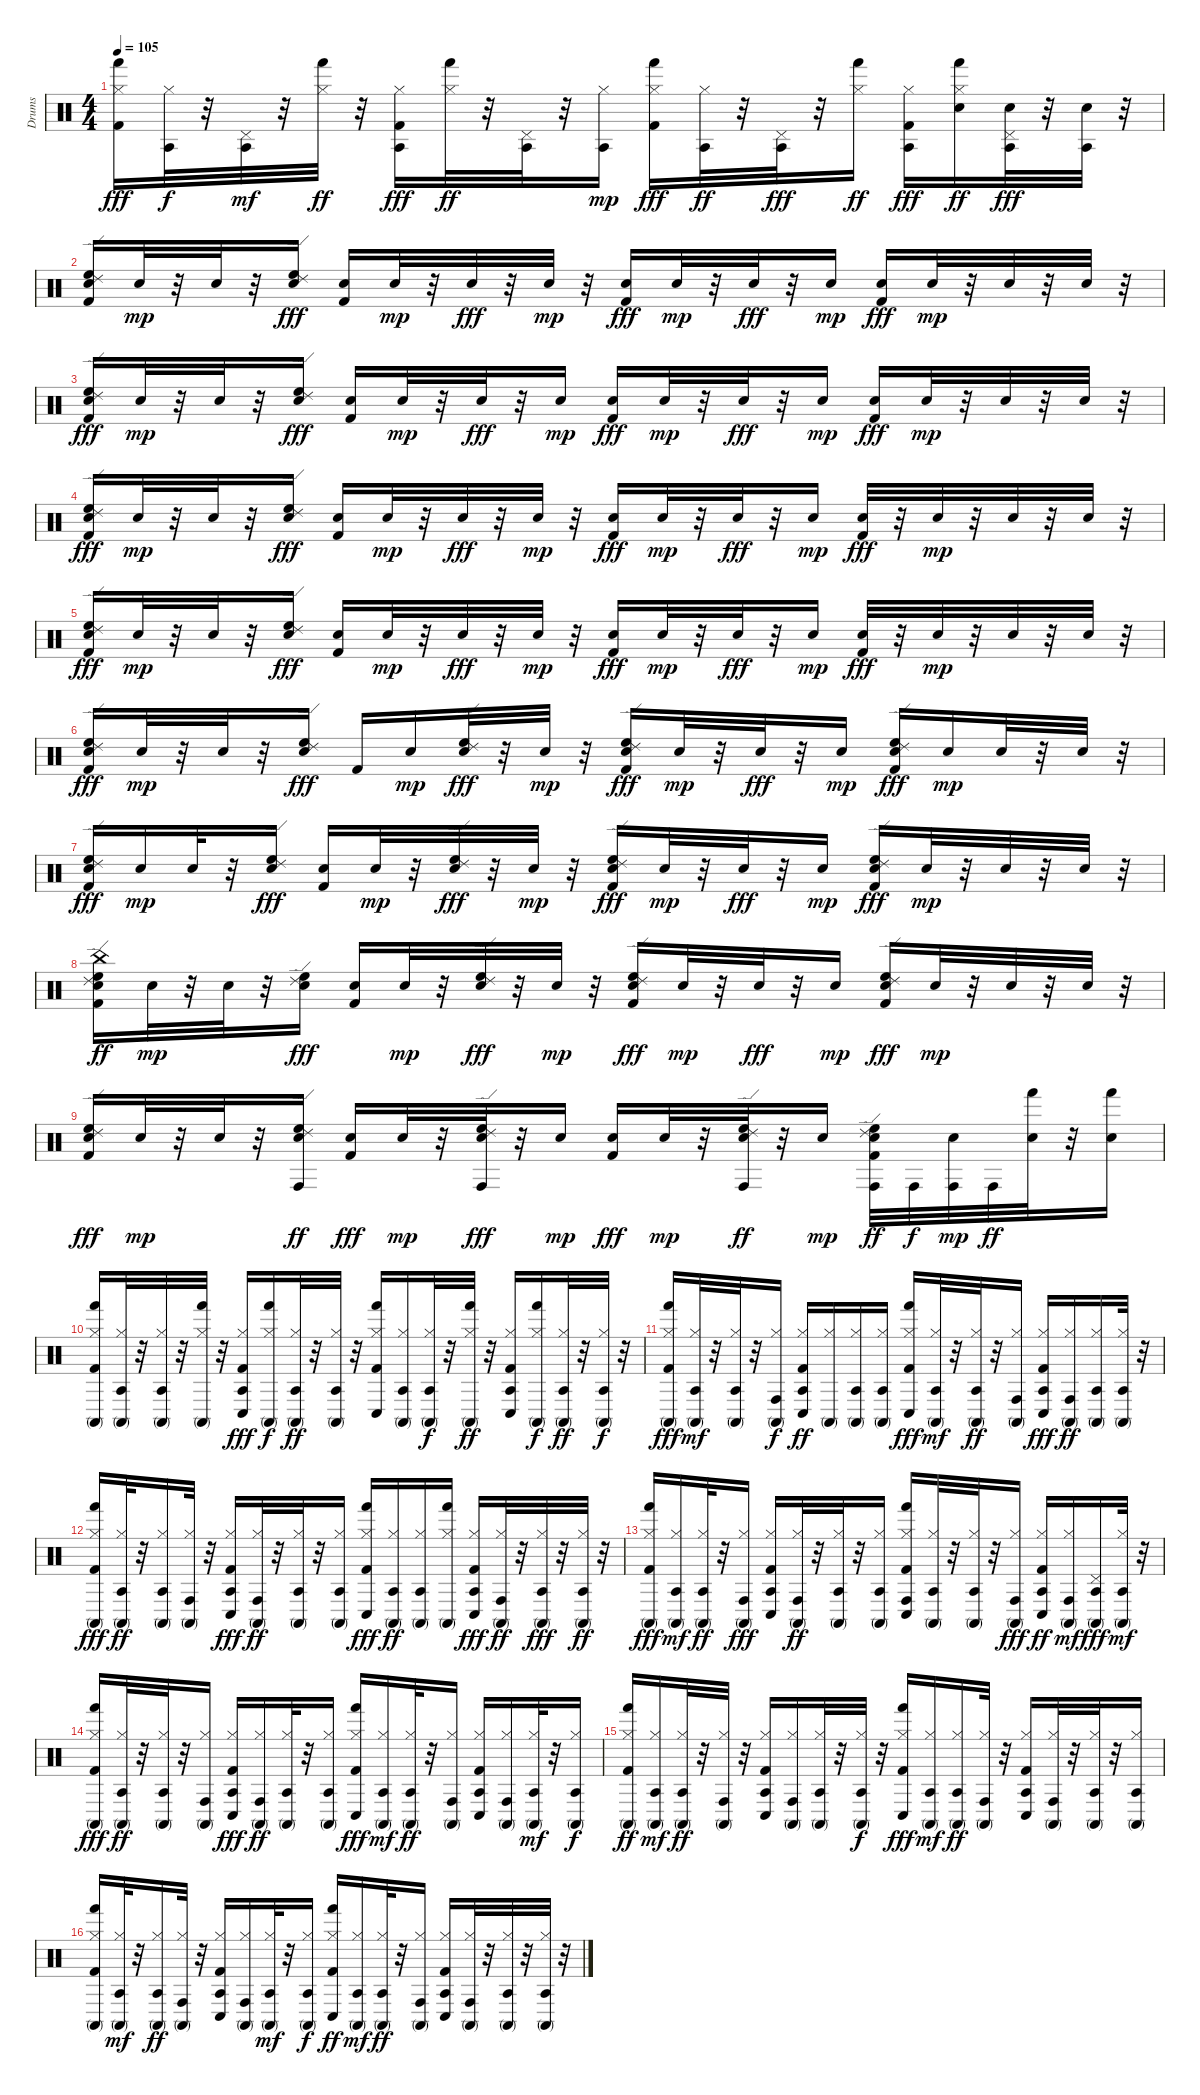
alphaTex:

\track ("Drums" "Drums") {instrument percussion}
\staff {score}
\articulation defaults
\ts (4 4)
\tempo 105
\clef neutral
\ks c
("Hand (hit)" "Hi-Hat (closed)" "Kick (hit) 2").16{dy fff} ("Agogo tow (hit)" "Hi-Hat (closed)").32{dy f} r.32 ("Pedal Hi-Hat (hit)" "Agogo tow (hit)").32{dy mf} r.32 ("Hi-Hat (closed)" "Hand (hit)").32{dy ff} r.32 ("Agogo tow (hit)" "Hi-Hat (closed)" "Kick (hit) 2").16{dy fff} ("Hi-Hat (closed)" "Hand (hit)").32{dy ff} r.32 ("Agogo tow (hit)" "Pedal Hi-Hat (hit)").32 r.32 ("Agogo tow (hit)" "Hi-Hat (closed)").16{dy mp} ("Hand (hit)" "Hi-Hat (closed)" "Kick (hit) 2").16{dy fff} ("Agogo tow (hit)" "Hi-Hat (closed)").32{dy ff} r.32 ("Pedal Hi-Hat (hit)" "Agogo tow (hit)").32{dy fff} r.32 ("Hand (hit)" "Hi-Hat (closed)").16{dy ff} ("Agogo tow (hit)" "Hi-Hat (closed)" "Kick (hit) 2").16{dy fff} ("Hand (hit)" "Snare (hit) 2" "Hi-Hat (closed)").16{dy ff} ("Agogo tow (hit)" "Snare (hit) 2" "Pedal Hi-Hat (hit)").32{dy fff} r.32 ("Agogo tow (hit)" "Snare (hit) 2").32 r.32 |
("High Floor Tom (hit)" "Ride (edge) 2" "Snare (hit) 2" "Kick (hit) 2").16 "Snare (hit) 2".32{dy mp} r.32 "Snare (hit) 2".32 r.32 ("Ride (edge) 2" "High Floor Tom (hit)" "Snare (hit) 2").16{dy fff} ("Snare (hit) 2" "Kick (hit) 2").16 "Snare (hit) 2".32{dy mp} r.32 "Snare (hit) 2".32{dy fff} r.32 "Snare (hit) 2".32{dy mp} r.32 ("Snare (hit) 2" "Kick (hit) 2").16{dy fff} "Snare (hit) 2".32{dy mp} r.32 "Snare (hit) 2".32{dy fff} r.32 "Snare (hit) 2".16{dy mp} ("Snare (hit) 2" "Kick (hit) 2").16{dy fff} "Snare (hit) 2".32{dy mp} r.32 "Snare (hit) 2".32 r.32 "Snare (hit) 2".32 r.32 |
("High Floor Tom (hit)" "Ride (edge) 2" "Snare (hit) 2" "Kick (hit) 2").16{dy fff} "Snare (hit) 2".32{dy mp} r.32 "Snare (hit) 2".32 r.32 ("Ride (edge) 2" "High Floor Tom (hit)" "Snare (hit) 2").16{dy fff} ("Snare (hit) 2" "Kick (hit) 2").16 "Snare (hit) 2".32{dy mp} r.32 "Snare (hit) 2".32{dy fff} r.32 "Snare (hit) 2".16{dy mp} ("Snare (hit) 2" "Kick (hit) 2").16{dy fff} "Snare (hit) 2".32{dy mp} r.32 "Snare (hit) 2".32{dy fff} r.32 "Snare (hit) 2".16{dy mp} ("Snare (hit) 2" "Kick (hit) 2").16{dy fff} "Snare (hit) 2".32{dy mp} r.32 "Snare (hit) 2".32 r.32 "Snare (hit) 2".32 r.32 |
("High Floor Tom (hit)" "Ride (edge) 2" "Kick (hit) 2" "Snare (hit) 2").16{dy fff} "Snare (hit) 2".32{dy mp} r.32 "Snare (hit) 2".32 r.32 ("High Floor Tom (hit)" "Ride (edge) 2" "Snare (hit) 2").16{dy fff} ("Snare (hit) 2" "Kick (hit) 2").16 "Snare (hit) 2".32{dy mp} r.32 "Snare (hit) 2".32{dy fff} r.32 "Snare (hit) 2".32{dy mp} r.32 ("Snare (hit) 2" "Kick (hit) 2").16{dy fff} "Snare (hit) 2".32{dy mp} r.32 "Snare (hit) 2".32{dy fff} r.32 "Snare (hit) 2".16{dy mp} ("Kick (hit) 2" "Snare (hit) 2").32{dy fff} r.32 "Snare (hit) 2".32{dy mp} r.32 "Snare (hit) 2".32 r.32 "Snare (hit) 2".32 r.32 |
("High Floor Tom (hit)" "Ride (edge) 2" "Kick (hit) 2" "Snare (hit) 2").16{dy fff} "Snare (hit) 2".32{dy mp} r.32 "Snare (hit) 2".32 r.32 ("High Floor Tom (hit)" "Ride (edge) 2" "Snare (hit) 2").16{dy fff} ("Snare (hit) 2" "Kick (hit) 2").16 "Snare (hit) 2".32{dy mp} r.32 "Snare (hit) 2".32{dy fff} r.32 "Snare (hit) 2".32{dy mp} r.32 ("Snare (hit) 2" "Kick (hit) 2").16{dy fff} "Snare (hit) 2".32{dy mp} r.32 "Snare (hit) 2".32{dy fff} r.32 "Snare (hit) 2".16{dy mp} ("Kick (hit) 2" "Snare (hit) 2").32{dy fff} r.32 "Snare (hit) 2".32{dy mp} r.32 "Snare (hit) 2".32 r.32 "Snare (hit) 2".32 r.32 |
("Ride (edge) 2" "High Floor Tom (hit)" "Snare (hit) 2" "Kick (hit) 2").16{dy fff} "Snare (hit) 2".32{dy mp} r.32 "Snare (hit) 2".32 r.32 ("High Floor Tom (hit)" "Ride (edge) 2" "Snare (hit) 2").16{dy fff} "Kick (hit) 2".16 "Snare (hit) 2".16{dy mp} ("Ride (edge) 2" "High Floor Tom (hit)" "Snare (hit) 2").32{dy fff} r.32 "Snare (hit) 2".32{dy mp} r.32 ("Ride (edge) 2" "High Floor Tom (hit)" "Snare (hit) 2" "Kick (hit) 2").16{dy fff} "Snare (hit) 2".32{dy mp} r.32 "Snare (hit) 2".32{dy fff} r.32 "Snare (hit) 2".16{dy mp} ("High Floor Tom (hit)" "Ride (edge) 2" "Snare (hit) 2" "Kick (hit) 2").16{dy fff} "Snare (hit) 2".16{dy mp} "Snare (hit) 2".32 r.32 "Snare (hit) 2".32 r.32 |
("Ride (edge) 2" "High Floor Tom (hit)" "Snare (hit) 2" "Kick (hit) 2").16{dy fff} "Snare (hit) 2".16{dy mp} "Snare (hit) 2".32 r.32 ("High Floor Tom (hit)" "Ride (edge) 2" "Snare (hit) 2").16{dy fff} ("Snare (hit) 2" "Kick (hit) 2").16 "Snare (hit) 2".32{dy mp} r.32 ("High Floor Tom (hit)" "Ride (edge) 2" "Snare (hit) 2").32{dy fff} r.32 "Snare (hit) 2".32{dy mp} r.32 ("Ride (edge) 2" "High Floor Tom (hit)" "Snare (hit) 2" "Kick (hit) 2").16{dy fff} "Snare (hit) 2".32{dy mp} r.32 "Snare (hit) 2".32{dy fff} r.32 "Snare (hit) 2".16{dy mp} ("High Floor Tom (hit)" "Ride (edge) 2" "Snare (hit) 2" "Kick (hit) 2").16{dy fff} "Snare (hit) 2".32{dy mp} r.32 "Snare (hit) 2".32 r.32 "Snare (hit) 2".32 r.32 |
("Snare (hit) 2" "Kick (hit) 2" "Ride (edge) 2" "High Floor Tom (hit)" "China (hit)").16{dy ff} "Snare (hit) 2".32{dy mp} r.32 "Snare (hit) 2".32 r.32 ("Ride (edge) 2" "High Floor Tom (hit)" "Snare (hit) 2").16{dy fff} ("Snare (hit) 2" "Kick (hit) 2").16 "Snare (hit) 2".32{dy mp} r.32 ("High Floor Tom (hit)" "Ride (edge) 2" "Snare (hit) 2").32{dy fff} r.32 "Snare (hit) 2".32{dy mp} r.32 ("Ride (edge) 2" "High Floor Tom (hit)" "Snare (hit) 2" "Kick (hit) 2").16{dy fff} "Snare (hit) 2".32{dy mp} r.32 "Snare (hit) 2".32{dy fff} r.32 "Snare (hit) 2".16{dy mp} ("High Floor Tom (hit)" "Ride (edge) 2" "Snare (hit) 2" "Kick (hit) 2").16{dy fff} "Snare (hit) 2".32{dy mp} r.32 "Snare (hit) 2".32 r.32 "Snare (hit) 2".32 r.32 |
("Snare (hit) 2" "Kick (hit) 2" "Ride (edge) 2" "High Floor Tom (hit)").16{dy fff} "Snare (hit) 2".32{dy mp} r.32 "Snare (hit) 2".32 r.32 ("High Floor Tom (hit)" "Ride (edge) 2" "Snare (hit) 2" "Conga high (hit)").16{dy ff} ("Snare (hit) 2" "Kick (hit) 2").16{dy fff} "Snare (hit) 2".32{dy mp} r.32 ("High Floor Tom (hit)" "Ride (edge) 2" "Snare (hit) 2" "Conga high (hit)").32{dy fff} r.32 "Snare (hit) 2".16{dy mp} ("Snare (hit) 2" "Kick (hit) 2").16{dy fff} "Snare (hit) 2".32{dy mp} r.32 ("Snare (hit) 2" "Ride (edge) 2" "High Floor Tom (hit)" "Conga high (hit)").32{dy ff} r.32 "Snare (hit) 2".16{dy mp} ("High Floor Tom (hit)" "Ride (edge) 2" "Snare (hit) 2" "Kick (hit) 2" "Conga high (hit)").32{dy ff} "Conga high (hit)".32{dy f} ("Snare (hit) 2" "Conga high (hit)").32{dy mp} "Conga high (hit)".32{dy ff} ("Snare (hit) 2" "Hand (hit)").32 r.32 ("Snare (hit) 2" "Hand (hit)").16 |
("Hi-Hat (closed)" "Kick (hit) 2" "Conga high (mute)" "Hand (hit)").16 ("Agogo tow (hit)" "Conga high (mute)" "Hi-Hat (closed)").32 r.32 ("Agogo tow (hit)" "Hi-Hat (closed)" "Conga high (mute)").32 r.32 ("Hi-Hat (closed)" "Conga high (mute)" "Hand (hit)").32 r.32 ("Hi-Hat (closed)" "Kick (hit) 2" "Conga low (hit)" "Agogo tow (hit)").16{dy fff} ("Hi-Hat (closed)" "Conga high (mute)" "Hand (hit)").16{dy f} ("Agogo tow (hit)" "Hi-Hat (closed)" "Conga high (mute)").32{dy ff} r.32 ("Agogo tow (hit)" "Hi-Hat (closed)" "Conga high (mute)").32 r.32 ("Hi-Hat (closed)" "Kick (hit) 2" "Conga low (hit)" "Hand (hit)").16 ("Agogo tow (hit)" "Hi-Hat (closed)" "Conga high (mute)").16 ("Agogo tow (hit)" "Hi-Hat (closed)" "Conga high (mute)").32{dy f} r.32 ("Hand (hit)" "Conga high (mute)" "Hi-Hat (closed)").32{dy ff} r.32 ("Agogo tow (hit)" "Hi-Hat (closed)" "Kick (hit) 2" "Conga low (hit)").16 ("Hand (hit)" "Hi-Hat (closed)" "Conga high (mute)").16{dy f} ("Agogo tow (hit)" "Conga high (mute)" "Hi-Hat (closed)").32{dy ff} r.32 ("Agogo tow (hit)" "Conga high (mute)" "Hi-Hat (closed)").32{dy f} r.32 |
("Conga high (mute)" "Hi-Hat (closed)" "Kick (hit) 2" "Hand (hit)").16{dy fff} ("Agogo tow (hit)" "Conga high (mute)" "Hi-Hat (closed)").32{dy mf} r.32 ("Agogo tow (hit)" "Hi-Hat (closed)" "Conga high (mute)").32 r.32 ("Conga high (mute)" "Hi-Hat (closed)" "Conga high (hit)").16{dy f} ("Agogo tow (hit)" "Conga low (hit)" "Kick (hit) 2" "Hi-Hat (closed)").16{dy ff} ("Conga high (mute)" "Hi-Hat (closed)").16 ("Agogo tow (hit)" "Conga high (mute)" "Hi-Hat (closed)").16 ("Agogo tow (hit)" "Conga high (mute)" "Hi-Hat (closed)").16 ("Hand (hit)" "Conga low (hit)" "Hi-Hat (closed)" "Kick (hit) 2").16{dy fff} ("Agogo tow (hit)" "Conga high (mute)" "Hi-Hat (closed)").32{dy mf} r.32 ("Agogo tow (hit)" "Conga high (mute)" "Hi-Hat (closed)").32{dy ff} r.32 ("Conga high (mute)" "Hi-Hat (closed)" "Conga high (hit)").16 ("Agogo tow (hit)" "Conga low (hit)" "Hi-Hat (closed)" "Kick (hit) 2").16{dy fff} ("Conga high (hit)" "Conga high (mute)" "Hi-Hat (closed)").16{dy ff} ("Agogo tow (hit)" "Conga high (mute)" "Hi-Hat (closed)").16 ("Agogo tow (hit)" "Conga high (mute)" "Hi-Hat (closed)").32 r.32 |
("Hand (hit)" "Conga high (mute)" "Hi-Hat (closed)" "Kick (hit) 2").16{dy fff} ("Agogo tow (hit)" "Conga high (mute)" "Hi-Hat (closed)").32{dy ff} r.32 ("Agogo tow (hit)" "Conga high (mute)" "Hi-Hat (closed)").16 ("Conga high (mute)" "Hi-Hat (closed)" "Conga high (hit)").32 r.32 ("Agogo tow (hit)" "Conga low (hit)" "Hi-Hat (closed)" "Kick (hit) 2").16{dy fff} ("Conga high (mute)" "Hi-Hat (closed)" "Conga high (hit)").32{dy ff} r.32 ("Agogo tow (hit)" "Conga high (mute)" "Hi-Hat (closed)").32 r.32 ("Conga high (mute)" "Hi-Hat (closed)" "Agogo tow (hit)").16 ("Hand (hit)" "Conga low (hit)" "Hi-Hat (closed)" "Kick (hit) 2").16{dy fff} ("Agogo tow (hit)" "Conga high (mute)" "Hi-Hat (closed)").16{dy ff} ("Agogo tow (hit)" "Conga high (mute)" "Hi-Hat (closed)").16 ("Hand (hit)" "Conga high (mute)" "Hi-Hat (closed)").16 ("Agogo tow (hit)" "Conga low (hit)" "Hi-Hat (closed)" "Kick (hit) 2").16{dy fff} ("Conga high (mute)" "Hi-Hat (closed)" "Conga high (hit)").32{dy ff} r.32 ("Agogo tow (hit)" "Conga high (mute)" "Hi-Hat (closed)").32{dy fff} r.32 ("Hi-Hat (closed)" "Conga high (mute)" "Agogo tow (hit)").32{dy ff} r.32 |
("Hand (hit)" "Conga high (mute)" "Hi-Hat (closed)" "Kick (hit) 2").16{dy fff} ("Agogo tow (hit)" "Conga high (mute)" "Hi-Hat (closed)").16{dy mf} ("Agogo tow (hit)" "Conga high (mute)" "Hi-Hat (closed)").32{dy ff} r.32 ("Conga high (mute)" "Hi-Hat (closed)" "Conga high (hit)").16{dy fff} ("Agogo tow (hit)" "Conga low (hit)" "Hi-Hat (closed)" "Kick (hit) 2").16 ("Conga high (mute)" "Hi-Hat (closed)" "Conga high (hit)").32{dy ff} r.32 ("Conga high (mute)" "Hi-Hat (closed)" "Agogo tow (hit)").32 r.32 ("Conga high (mute)" "Hi-Hat (closed)" "Agogo tow (hit)").16 ("Hand (hit)" "Conga high (hit)" "Conga low (hit)" "Kick (hit) 2" "Hi-Hat (closed)").16 ("Agogo tow (hit)" "Conga high (mute)" "Hi-Hat (closed)").32 r.32 ("Agogo tow (hit)" "Conga high (mute)" "Hi-Hat (closed)").32 r.32 ("Conga high (mute)" "Hi-Hat (closed)" "Conga high (hit)").16{dy fff} ("Agogo tow (hit)" "Conga low (hit)" "Kick (hit) 2" "Hi-Hat (closed)").16{dy ff} ("Conga high (hit)" "Conga high (mute)" "Hi-Hat (closed)").16{dy mf} ("Agogo tow (hit)" "Conga high (mute)" "Pedal Hi-Hat (hit)").16{dy fff} ("Agogo tow (hit)" "Conga high (mute)" "Hi-Hat (closed)").32{dy mf} r.32 |
("Hand (hit)" "Conga high (mute)" "Hi-Hat (closed)" "Kick (hit) 2").16{dy fff} ("Agogo tow (hit)" "Conga high (mute)" "Hi-Hat (closed)").32{dy ff} r.32 ("Agogo tow (hit)" "Conga high (mute)" "Hi-Hat (closed)").32 r.32 ("Conga high (mute)" "Hi-Hat (closed)" "Conga high (hit)").16 ("Agogo tow (hit)" "Conga low (hit)" "Hi-Hat (closed)" "Kick (hit) 2").16{dy fff} ("Conga high (mute)" "Hi-Hat (closed)" "Conga high (hit)").16{dy ff} ("Conga high (mute)" "Hi-Hat (closed)" "Agogo tow (hit)").32 r.32 ("Conga high (mute)" "Hi-Hat (closed)" "Agogo tow (hit)").16 ("Hand (hit)" "Hi-Hat (closed)" "Kick (hit) 2" "Conga low (hit)").16{dy fff} ("Agogo tow (hit)" "Hi-Hat (closed)" "Conga high (mute)").16{dy mf} ("Conga high (mute)" "Hi-Hat (closed)" "Agogo tow (hit)").32{dy ff} r.32 ("Hi-Hat (closed)" "Conga high (mute)" "Conga high (hit)").16 ("Hi-Hat (closed)" "Kick (hit) 2" "Conga low (hit)" "Agogo tow (hit)").16 ("Hi-Hat (closed)" "Conga high (mute)" "Conga high (hit)").16 ("Agogo tow (hit)" "Hi-Hat (closed)" "Conga high (mute)").32{dy mf} r.32 ("Hi-Hat (closed)" "Conga high (mute)" "Agogo tow (hit)").16{dy f} |
("Hi-Hat (closed)" "Kick (hit) 2" "Conga high (mute)" "Hand (hit)").16{dy ff} ("Agogo tow (hit)" "Conga high (mute)" "Hi-Hat (closed)").16{dy mf} ("Hi-Hat (closed)" "Conga high (mute)" "Agogo tow (hit)").32{dy ff} r.32 ("Hi-Hat (closed)" "Conga high (mute)" "Conga high (hit)").32 r.32 ("Agogo tow (hit)" "Kick (hit) 2" "Hi-Hat (closed)" "Conga low (hit)").16 ("Hi-Hat (closed)" "Conga high (mute)" "Conga high (hit)").16 ("Agogo tow (hit)" "Conga high (mute)" "Hi-Hat (closed)").32 r.32 ("Agogo tow (hit)" "Conga high (mute)" "Hi-Hat (closed)").32{dy f} r.32 ("Hi-Hat (closed)" "Kick (hit) 2" "Conga low (hit)" "Hand (hit)").16{dy fff} ("Agogo tow (hit)" "Hi-Hat (closed)" "Conga high (mute)").16{dy mf} ("Hi-Hat (closed)" "Conga high (mute)" "Agogo tow (hit)").16{dy ff} ("Conga high (mute)" "Hi-Hat (closed)" "Conga high (hit)").32 r.32 ("Agogo tow (hit)" "Hi-Hat (closed)" "Kick (hit) 2" "Conga low (hit)").16 ("Conga high (mute)" "Hi-Hat (closed)" "Conga high (hit)").32 r.32 ("Agogo tow (hit)" "Conga high (mute)" "Hi-Hat (closed)").32 r.32 ("Agogo tow (hit)" "Conga high (mute)" "Hi-Hat (closed)").16 |
("Hand (hit)" "Kick (hit) 2" "Hi-Hat (closed)" "Conga high (mute)").16 ("Agogo tow (hit)" "Hi-Hat (closed)" "Conga high (mute)").32{dy mf} r.32 ("Agogo tow (hit)" "Hi-Hat (closed)" "Conga high (mute)").16{dy ff} ("Conga high (mute)" "Hi-Hat (closed)" "Conga high (hit)").32 r.32 ("Kick (hit) 2" "Hi-Hat (closed)" "Conga low (hit)" "Agogo tow (hit)").16 ("Hi-Hat (closed)" "Conga high (mute)" "Conga high (hit)").16 ("Agogo tow (hit)" "Hi-Hat (closed)" "Conga high (mute)").32{dy mf} r.32 ("Conga high (mute)" "Hi-Hat (closed)" "Agogo tow (hit)").16{dy f} ("Hi-Hat (closed)" "Kick (hit) 2" "Conga low (hit)" "Hand (hit)").16{dy ff} ("Agogo tow (hit)" "Conga high (mute)" "Hi-Hat (closed)").16{dy mf} ("Conga high (mute)" "Hi-Hat (closed)" "Agogo tow (hit)").32{dy ff} r.32 ("Conga high (mute)" "Hi-Hat (closed)" "Conga high (hit)").16 ("Agogo tow (hit)" "Conga low (hit)" "Kick (hit) 2" "Hi-Hat (closed)").16 ("Conga high (mute)" "Hi-Hat (closed)" "Conga high (hit)").32 r.32 ("Agogo tow (hit)" "Conga high (mute)" "Hi-Hat (closed)").32 r.32 ("Agogo tow (hit)" "Conga high (mute)" "Hi-Hat (closed)").32 r.32
